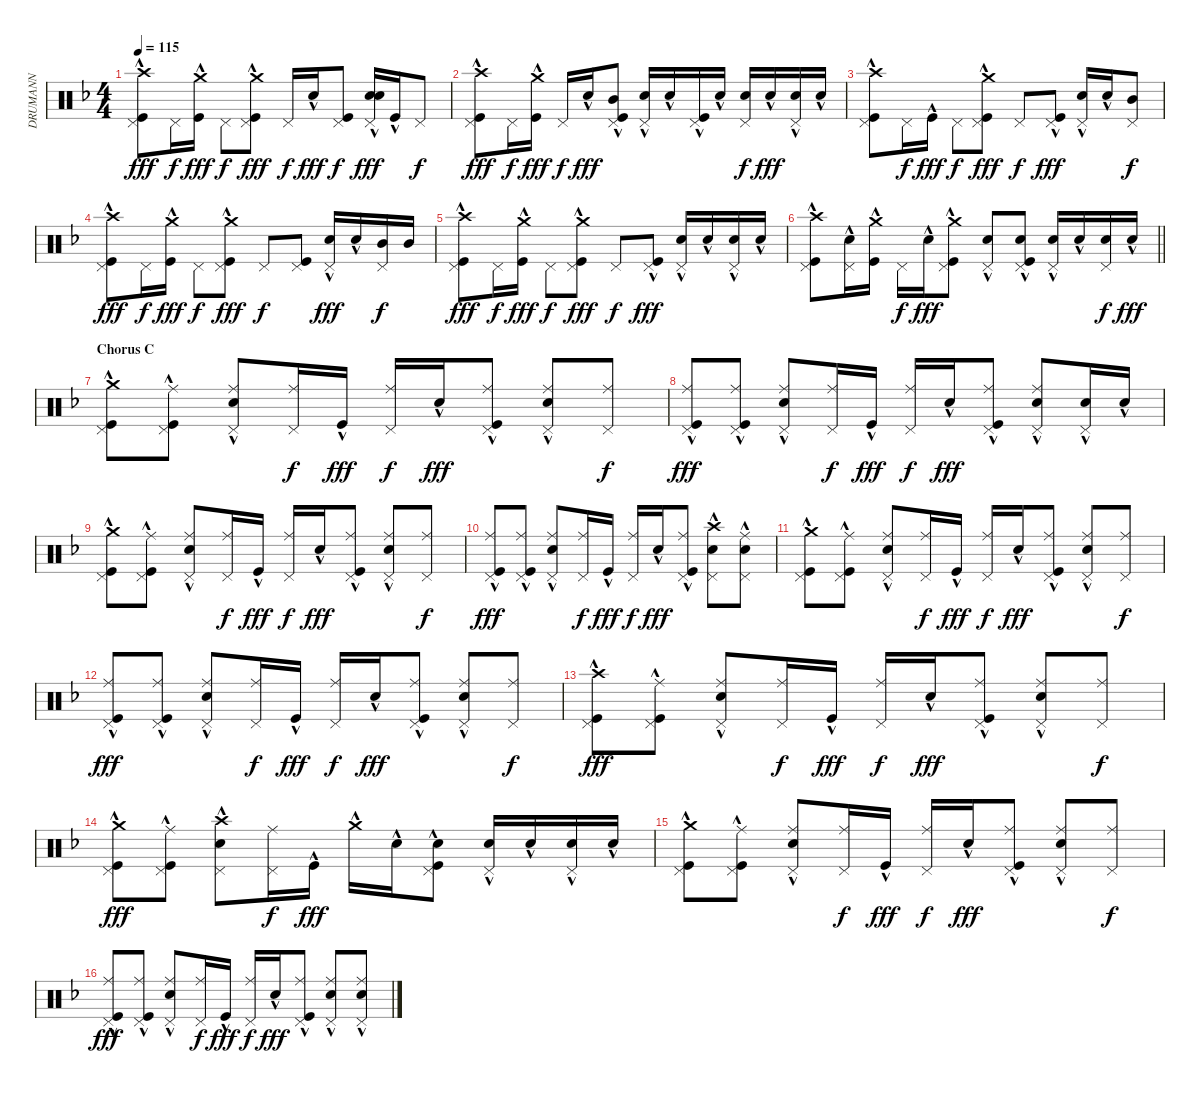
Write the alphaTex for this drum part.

\track ("DRUMANN" "DRUMANN") {instrument percussion}
\staff {score}
\articulation defaults
\ts (4 4)
\tempo 115
\clef neutral
\ks f
("Crash high (hit)"{hac} "Pedal Hi-Hat (hit)" "Kick (hit)"{hac}).8{dy fff} "Pedal Hi-Hat (hit)".16{dy f} ("Crash medium (hit)"{hac} "Kick (hit)"{hac}).16{dy fff} "Pedal Hi-Hat (hit)".8{dy f} ("Crash medium (hit)"{hac} "Pedal Hi-Hat (hit)" "Kick (hit)"{hac}).8{dy fff} "Pedal Hi-Hat (hit)".16{dy f} "Snare (hit) 2"{hac}.16{dy fff} ("Pedal Hi-Hat (hit)" "Kick (hit)").8{dy f} ("Snare (hit) 2" "Snare (hit) 2"{hac} "Pedal Hi-Hat (hit)").16{dy fff} "Kick (hit)"{hac}.16 "Pedal Hi-Hat (hit)".8{dy f} |
("Crash high (hit)"{hac} "Pedal Hi-Hat (hit)" "Kick (hit)"{hac}).8{dy fff} "Pedal Hi-Hat (hit)".16{dy f} ("Crash medium (hit)"{hac} "Kick (hit)"{hac}).16{dy fff} "Pedal Hi-Hat (hit)".16{dy f} "Snare (hit) 2"{hac}.16{dy fff} ("Mid Tom (hit)" "Pedal Hi-Hat (hit)" "Kick (hit)"{hac}).8 ("Snare (hit) 2"{hac} "Pedal Hi-Hat (hit)").16 "Snare (hit) 2"{hac}.16 ("Pedal Hi-Hat (hit)" "Kick (hit)"{hac}).16 "Snare (hit) 2"{hac}.16 ("Snare (hit) 2" "Pedal Hi-Hat (hit)").16{dy f} "Snare (hit) 2"{hac}.16{dy fff} ("Snare (hit) 2"{hac} "Pedal Hi-Hat (hit)").16 "Snare (hit) 2"{hac}.16 |
("Crash high (hit)"{hac} "Pedal Hi-Hat (hit)" "Kick (hit)"{hac}).8 "Pedal Hi-Hat (hit)".16{dy f} "Kick (hit)"{hac}.16{dy fff} "Pedal Hi-Hat (hit)".8{dy f} ("Crash medium (hit)"{hac} "Pedal Hi-Hat (hit)" "Kick (hit)"{hac}).8{dy fff} "Pedal Hi-Hat (hit)".8{dy f} ("Pedal Hi-Hat (hit)" "Kick (hit)"{hac}).8{dy fff} ("Snare (hit) 2"{hac} "Pedal Hi-Hat (hit)").16 "Snare (hit) 2"{hac}.16 ("Mid Tom (hit)" "Pedal Hi-Hat (hit)").8{dy f} |
("Crash high (hit)"{hac} "Pedal Hi-Hat (hit)" "Kick (hit)"{hac}).8{dy fff} "Pedal Hi-Hat (hit)".16{dy f} ("Crash medium (hit)"{hac} "Kick (hit)"{hac}).16{dy fff} "Pedal Hi-Hat (hit)".8{dy f} ("Crash medium (hit)"{hac} "Pedal Hi-Hat (hit)" "Kick (hit)"{hac}).8{dy fff} "Pedal Hi-Hat (hit)".8{dy f} ("Pedal Hi-Hat (hit)" "Kick (hit)").8 ("Snare (hit) 2"{hac} "Pedal Hi-Hat (hit)").16{dy fff} "Snare (hit) 2"{hac}.16 ("Mid Tom (hit)" "Pedal Hi-Hat (hit)").16{dy f} "Mid Tom (hit)".16 |
("Crash high (hit)"{hac} "Pedal Hi-Hat (hit)" "Kick (hit)"{hac}).8{dy fff} "Pedal Hi-Hat (hit)".16{dy f} ("Crash medium (hit)"{hac} "Kick (hit)"{hac}).16{dy fff} "Pedal Hi-Hat (hit)".8{dy f} ("Crash medium (hit)"{hac} "Pedal Hi-Hat (hit)" "Kick (hit)"{hac}).8{dy fff} "Pedal Hi-Hat (hit)".8{dy f} ("Pedal Hi-Hat (hit)" "Kick (hit)"{hac}).8{dy fff} ("Snare (hit) 2"{hac} "Pedal Hi-Hat (hit)").16 "Snare (hit) 2"{hac}.16 ("Snare (hit) 2"{hac} "Pedal Hi-Hat (hit)").16 "Snare (hit) 2"{hac}.16 |
\barLineRight lightlight
("Crash high (hit)"{hac} "Pedal Hi-Hat (hit)" "Kick (hit)"{hac}).8 ("Snare (hit) 2"{hac} "Pedal Hi-Hat (hit)").16 ("Crash medium (hit)"{hac} "Kick (hit)"{hac}).16 "Pedal Hi-Hat (hit)".16{dy f} "Snare (hit) 2"{hac}.16{dy fff} ("Crash medium (hit)"{hac} "Pedal Hi-Hat (hit)" "Kick (hit)"{hac}).8 ("Snare (hit) 2"{hac} "Pedal Hi-Hat (hit)").8 ("Snare (hit) 2"{hac} "Pedal Hi-Hat (hit)" "Kick (hit)").8 ("Snare (hit) 2"{hac} "Pedal Hi-Hat (hit)").16 "Snare (hit) 2"{hac}.16 ("Snare (hit) 2" "Pedal Hi-Hat (hit)").16{dy f} "Snare (hit) 2"{hac}.16{dy fff} |
\section ("" "Chorus C")
("Crash medium (hit)"{hac} "Pedal Hi-Hat (hit)" "Kick (hit)"{hac}).8 ("Ride (middle)" "Pedal Hi-Hat (hit)" "Kick (hit)"{hac}).8 ("Ride (middle)" "Snare (hit) 2"{hac} "Pedal Hi-Hat (hit)").8 ("Ride (middle)" "Pedal Hi-Hat (hit)").16{dy f} "Kick (hit)"{hac}.16{dy fff} ("Ride (middle)" "Pedal Hi-Hat (hit)").16{dy f} "Snare (hit) 2"{hac}.16{dy fff} ("Ride (middle)" "Pedal Hi-Hat (hit)" "Kick (hit)"{hac}).8 ("Ride (middle)" "Snare (hit) 2"{hac} "Pedal Hi-Hat (hit)").8 ("Ride (middle)" "Pedal Hi-Hat (hit)").8{dy f} |
("Ride (middle)" "Pedal Hi-Hat (hit)" "Kick (hit)"{hac}).8{dy fff} ("Ride (middle)" "Pedal Hi-Hat (hit)" "Kick (hit)"{hac}).8 ("Ride (middle)" "Snare (hit) 2"{hac} "Pedal Hi-Hat (hit)").8 ("Ride (middle)" "Pedal Hi-Hat (hit)").16{dy f} "Kick (hit)"{hac}.16{dy fff} ("Ride (middle)" "Pedal Hi-Hat (hit)").16{dy f} "Snare (hit) 2"{hac}.16{dy fff} ("Ride (middle)" "Pedal Hi-Hat (hit)" "Kick (hit)"{hac}).8 ("Ride (middle)" "Snare (hit) 2"{hac} "Pedal Hi-Hat (hit)").8 ("Snare (hit) 2"{hac} "Pedal Hi-Hat (hit)").16 "Snare (hit) 2"{hac}.16 |
("Crash medium (hit)"{hac} "Pedal Hi-Hat (hit)" "Kick (hit)"{hac}).8 ("Ride (middle)" "Pedal Hi-Hat (hit)" "Kick (hit)"{hac}).8 ("Ride (middle)" "Snare (hit) 2"{hac} "Pedal Hi-Hat (hit)").8 ("Ride (middle)" "Pedal Hi-Hat (hit)").16{dy f} "Kick (hit)"{hac}.16{dy fff} ("Ride (middle)" "Pedal Hi-Hat (hit)").16{dy f} "Snare (hit) 2"{hac}.16{dy fff} ("Ride (middle)" "Pedal Hi-Hat (hit)" "Kick (hit)"{hac}).8 ("Ride (middle)" "Snare (hit) 2"{hac} "Pedal Hi-Hat (hit)").8 ("Ride (middle)" "Pedal Hi-Hat (hit)").8{dy f} |
("Ride (middle)" "Pedal Hi-Hat (hit)" "Kick (hit)"{hac}).8{dy fff} ("Ride (middle)" "Pedal Hi-Hat (hit)" "Kick (hit)"{hac}).8 ("Ride (middle)" "Snare (hit) 2"{hac} "Pedal Hi-Hat (hit)").8 ("Ride (middle)" "Pedal Hi-Hat (hit)").16{dy f} "Kick (hit)"{hac}.16{dy fff} ("Ride (middle)" "Pedal Hi-Hat (hit)").16{dy f} "Snare (hit) 2"{hac}.16{dy fff} ("Ride (middle)" "Pedal Hi-Hat (hit)" "Kick (hit)"{hac}).8 ("Crash high (hit)"{hac} "Snare (hit) 2"{hac} "Pedal Hi-Hat (hit)").8 ("Ride (middle)" "Snare (hit) 2"{hac} "Pedal Hi-Hat (hit)").8 |
("Crash medium (hit)"{hac} "Pedal Hi-Hat (hit)" "Kick (hit)"{hac}).8 ("Ride (middle)" "Pedal Hi-Hat (hit)" "Kick (hit)"{hac}).8 ("Ride (middle)" "Snare (hit) 2"{hac} "Pedal Hi-Hat (hit)").8 ("Ride (middle)" "Pedal Hi-Hat (hit)").16{dy f} "Kick (hit)"{hac}.16{dy fff} ("Ride (middle)" "Pedal Hi-Hat (hit)").16{dy f} "Snare (hit) 2"{hac}.16{dy fff} ("Ride (middle)" "Pedal Hi-Hat (hit)" "Kick (hit)"{hac}).8 ("Ride (middle)" "Snare (hit) 2"{hac} "Pedal Hi-Hat (hit)").8 ("Ride (middle)" "Pedal Hi-Hat (hit)").8{dy f} |
("Ride (middle)" "Pedal Hi-Hat (hit)" "Kick (hit)"{hac}).8{dy fff} ("Ride (middle)" "Pedal Hi-Hat (hit)" "Kick (hit)"{hac}).8 ("Ride (middle)" "Snare (hit) 2"{hac} "Pedal Hi-Hat (hit)").8 ("Ride (middle)" "Pedal Hi-Hat (hit)").16{dy f} "Kick (hit)"{hac}.16{dy fff} ("Ride (middle)" "Pedal Hi-Hat (hit)").16{dy f} "Snare (hit) 2"{hac}.16{dy fff} ("Ride (middle)" "Pedal Hi-Hat (hit)" "Kick (hit)"{hac}).8 ("Ride (middle)" "Snare (hit) 2"{hac} "Pedal Hi-Hat (hit)").8 ("Ride (middle)" "Pedal Hi-Hat (hit)").8{dy f} |
("Crash high (hit)"{hac} "Pedal Hi-Hat (hit)" "Kick (hit)"{hac}).8{dy fff} ("Ride (middle)" "Pedal Hi-Hat (hit)" "Kick (hit)"{hac}).8 ("Ride (middle)" "Snare (hit) 2"{hac} "Pedal Hi-Hat (hit)").8 ("Ride (middle)" "Pedal Hi-Hat (hit)").16{dy f} "Kick (hit)"{hac}.16{dy fff} ("Ride (middle)" "Pedal Hi-Hat (hit)").16{dy f} "Snare (hit) 2"{hac}.16{dy fff} ("Ride (middle)" "Pedal Hi-Hat (hit)" "Kick (hit)"{hac}).8 ("Ride (middle)" "Snare (hit) 2"{hac} "Pedal Hi-Hat (hit)").8 ("Ride (middle)" "Pedal Hi-Hat (hit)").8{dy f} |
("Crash medium (hit)"{hac} "Pedal Hi-Hat (hit)" "Kick (hit)"{hac}).8{dy fff} ("Ride (middle)" "Pedal Hi-Hat (hit)" "Kick (hit)"{hac}).8 ("Crash high (hit)"{hac} "Snare (hit) 2"{hac} "Pedal Hi-Hat (hit)").8 ("Ride (middle)" "Pedal Hi-Hat (hit)").16{dy f} "Kick (hit)"{hac}.16{dy fff} "Crash medium (hit)"{hac}.16 "Snare (hit) 2"{hac}.16 ("Snare (hit) 2"{hac} "Pedal Hi-Hat (hit)" "Kick (hit)"{hac}).8 ("Snare (hit) 2"{hac} "Pedal Hi-Hat (hit)").16 "Snare (hit) 2"{hac}.16 ("Snare (hit) 2"{hac} "Pedal Hi-Hat (hit)").16 "Snare (hit) 2"{hac}.16 |
("Crash medium (hit)"{hac} "Pedal Hi-Hat (hit)" "Kick (hit)"{hac}).8 ("Ride (middle)" "Pedal Hi-Hat (hit)" "Kick (hit)"{hac}).8 ("Ride (middle)" "Snare (hit) 2"{hac} "Pedal Hi-Hat (hit)").8 ("Ride (middle)" "Pedal Hi-Hat (hit)").16{dy f} "Kick (hit)"{hac}.16{dy fff} ("Ride (middle)" "Pedal Hi-Hat (hit)").16{dy f} "Snare (hit) 2"{hac}.16{dy fff} ("Ride (middle)" "Pedal Hi-Hat (hit)" "Kick (hit)"{hac}).8 ("Ride (middle)" "Snare (hit) 2"{hac} "Pedal Hi-Hat (hit)").8 ("Ride (middle)" "Pedal Hi-Hat (hit)").8{dy f} |
("Ride (middle)" "Pedal Hi-Hat (hit)" "Kick (hit)"{hac}).8{dy fff} ("Ride (middle)" "Pedal Hi-Hat (hit)" "Kick (hit)"{hac}).8 ("Ride (middle)" "Snare (hit) 2"{hac} "Pedal Hi-Hat (hit)").8 ("Ride (middle)" "Pedal Hi-Hat (hit)").16{dy f} "Kick (hit)"{hac}.16{dy fff} ("Ride (middle)" "Pedal Hi-Hat (hit)").16{dy f} "Snare (hit) 2"{hac}.16{dy fff} ("Ride (middle)" "Pedal Hi-Hat (hit)" "Kick (hit)"{hac}).8 ("Ride (middle)" "Snare (hit) 2"{hac} "Pedal Hi-Hat (hit)").8 ("Ride (middle)" "Snare (hit) 2"{hac} "Pedal Hi-Hat (hit)").8
